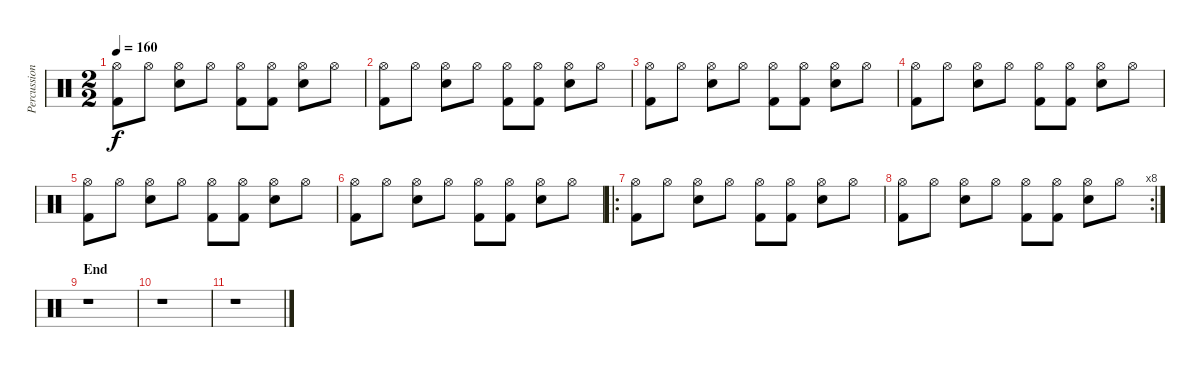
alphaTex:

\track ("Percussion" "Percussion") {instrument percussion}
\staff {score}
\articulation defaults
\ts (2 2)
\tempo 160
\clef neutral
\ks c
("Hi-Hat (open)" "Kick (hit) 2").8{dy f} "Hi-Hat (open)".8 ("Hi-Hat (open)" "Snare (hit) 2").8 "Hi-Hat (open)".8 ("Hi-Hat (open)" "Kick (hit) 2").8 ("Hi-Hat (open)" "Kick (hit) 2").8 ("Hi-Hat (open)" "Snare (hit) 2").8 "Hi-Hat (open)".8 |
("Hi-Hat (open)" "Kick (hit) 2").8 "Hi-Hat (open)".8 ("Hi-Hat (open)" "Snare (hit) 2").8 "Hi-Hat (open)".8 ("Hi-Hat (open)" "Kick (hit) 2").8 ("Hi-Hat (open)" "Kick (hit) 2").8 ("Hi-Hat (open)" "Snare (hit) 2").8 "Hi-Hat (open)".8 |
("Hi-Hat (open)" "Kick (hit) 2").8 "Hi-Hat (open)".8 ("Hi-Hat (open)" "Snare (hit) 2").8 "Hi-Hat (open)".8 ("Hi-Hat (open)" "Kick (hit) 2").8 ("Hi-Hat (open)" "Kick (hit) 2").8 ("Hi-Hat (open)" "Snare (hit) 2").8 "Hi-Hat (open)".8 |
("Hi-Hat (open)" "Kick (hit) 2").8 "Hi-Hat (open)".8 ("Hi-Hat (open)" "Snare (hit) 2").8 "Hi-Hat (open)".8 ("Hi-Hat (open)" "Kick (hit) 2").8 ("Hi-Hat (open)" "Kick (hit) 2").8 ("Hi-Hat (open)" "Snare (hit) 2").8 "Hi-Hat (open)".8 |
("Hi-Hat (open)" "Kick (hit) 2").8 "Hi-Hat (open)".8 ("Hi-Hat (open)" "Snare (hit) 2").8 "Hi-Hat (open)".8 ("Hi-Hat (open)" "Kick (hit) 2").8 ("Hi-Hat (open)" "Kick (hit) 2").8 ("Hi-Hat (open)" "Snare (hit) 2").8 "Hi-Hat (open)".8 |
("Hi-Hat (open)" "Kick (hit) 2").8 "Hi-Hat (open)".8 ("Hi-Hat (open)" "Snare (hit) 2").8 "Hi-Hat (open)".8 ("Hi-Hat (open)" "Kick (hit) 2").8 ("Hi-Hat (open)" "Kick (hit) 2").8 ("Hi-Hat (open)" "Snare (hit) 2").8 "Hi-Hat (open)".8 |
\ro
("Hi-Hat (open)" "Kick (hit) 2").8 "Hi-Hat (open)".8 ("Hi-Hat (open)" "Snare (hit) 2").8 "Hi-Hat (open)".8 ("Hi-Hat (open)" "Kick (hit) 2").8 ("Hi-Hat (open)" "Kick (hit) 2").8 ("Hi-Hat (open)" "Snare (hit) 2").8 "Hi-Hat (open)".8 |
\rc 8
("Hi-Hat (open)" "Kick (hit) 2").8 "Hi-Hat (open)".8 ("Hi-Hat (open)" "Snare (hit) 2").8 "Hi-Hat (open)".8 ("Hi-Hat (open)" "Kick (hit) 2").8 ("Hi-Hat (open)" "Kick (hit) 2").8 ("Hi-Hat (open)" "Snare (hit) 2").8 "Hi-Hat (open)".8 |
\section ("" "End")
r.1 |
r.1 |
r.1
